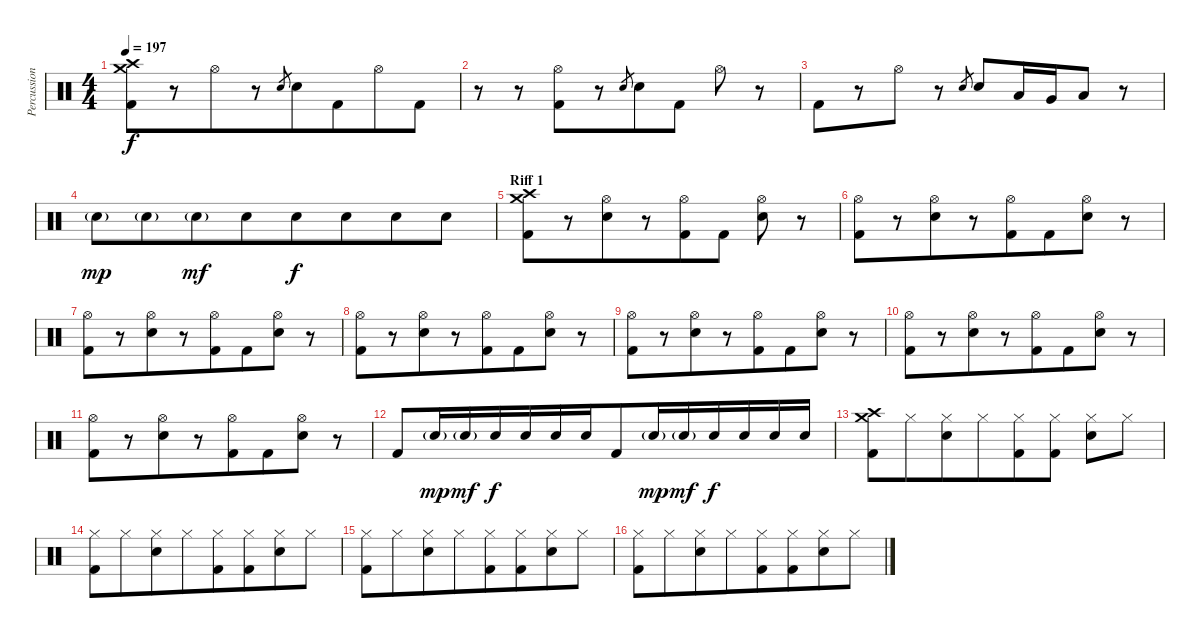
\track ("Percussion" "Percussion") {instrument percussion}
\staff {score}
\articulation defaults
\ts (4 4)
\tempo 197
\clef neutral
\ks c
("Crash medium (hit)" "Crash high (hit)" "Kick (hit) 2").8{dy f beam merge} r.8{beam merge} "Hi-Hat (open)".8{beam merge} r.8 "Electric Snare (hit)".8{gr beam merge} "Electric Snare (hit)".8 "Kick (hit) 2".8{beam merge} "Hi-Hat (open)".8{beam merge} "Kick (hit) 2".8 |
r.8{beam merge} r.8 ("Hi-Hat (open)" "Kick (hit) 2").8{beam merge} r.8 "Electric Snare (hit)".8{gr beam merge} "Electric Snare (hit)".8{beam merge} "Kick (hit) 2".8 "Hi-Hat (open)".8{beam merge} r.8 |
"Kick (hit) 2".8{beam merge} r.8{beam merge} "Hi-Hat (open)".8 r.8 "Electric Snare (hit)".8{gr beam merge} "Electric Snare (hit)".8 "Low Tom (hit)".16{beam merge} "Very Low Tom (hit)".16{beam merge} "Low Floor Tom (hit)".8{beam merge} r.8 |
"Electric Snare (hit)"{g}.8{dy mp beam merge} "Electric Snare (hit)"{g}.8{beam merge} "Electric Snare (hit)"{g}.8{dy mf beam merge} "Electric Snare (hit)".8{beam merge} "Electric Snare (hit)".8{dy f beam merge} "Electric Snare (hit)".8{beam merge} "Electric Snare (hit)".8{beam merge} "Electric Snare (hit)".8 |
\section ("" "Riff 1")
("Crash medium (hit)" "Crash high (hit)" "Kick (hit) 2").8{beam merge} r.8{beam merge} ("Hi-Hat (open)" "Electric Snare (hit)").8{beam merge} r.8{beam merge} ("Hi-Hat (open)" "Kick (hit) 2").8{beam merge} "Kick (hit) 2".8 ("Hi-Hat (open)" "Electric Snare (hit)").8{beam merge} r.8 |
("Hi-Hat (open)" "Kick (hit) 2").8{beam merge} r.8{beam merge} ("Hi-Hat (open)" "Electric Snare (hit)").8{beam merge} r.8{beam merge} ("Hi-Hat (open)" "Kick (hit) 2").8{beam merge} "Kick (hit) 2".8{beam merge} ("Hi-Hat (open)" "Electric Snare (hit)").8 r.8 |
("Hi-Hat (open)" "Kick (hit) 2").8{beam merge} r.8{beam merge} ("Hi-Hat (open)" "Electric Snare (hit)").8{beam merge} r.8{beam merge} ("Hi-Hat (open)" "Kick (hit) 2").8{beam merge} "Kick (hit) 2".8{beam merge} ("Hi-Hat (open)" "Electric Snare (hit)").8{beam merge} r.8 |
("Hi-Hat (open)" "Kick (hit) 2").8{beam merge} r.8 ("Hi-Hat (open)" "Electric Snare (hit)").8{beam merge} r.8{beam merge} ("Hi-Hat (open)" "Kick (hit) 2").8{beam merge} "Kick (hit) 2".8{beam merge} ("Hi-Hat (open)" "Electric Snare (hit)").8{beam merge} r.8 |
("Hi-Hat (open)" "Kick (hit) 2").8{beam merge} r.8{beam merge} ("Hi-Hat (open)" "Electric Snare (hit)").8{beam merge} r.8{beam merge} ("Hi-Hat (open)" "Kick (hit) 2").8{beam merge} "Kick (hit) 2".8{beam merge} ("Hi-Hat (open)" "Electric Snare (hit)").8{beam merge} r.8 |
("Hi-Hat (open)" "Kick (hit) 2").8{beam merge} r.8{beam merge} ("Hi-Hat (open)" "Electric Snare (hit)").8{beam merge} r.8{beam merge} ("Hi-Hat (open)" "Kick (hit) 2").8{beam merge} "Kick (hit) 2".8{beam merge} ("Hi-Hat (open)" "Electric Snare (hit)").8{beam merge} r.8 |
("Hi-Hat (open)" "Kick (hit) 2").8{beam merge} r.8{beam merge} ("Hi-Hat (open)" "Electric Snare (hit)").8{beam merge} r.8{beam merge} ("Hi-Hat (open)" "Kick (hit) 2").8{beam merge} "Kick (hit) 2".8{beam merge} ("Hi-Hat (open)" "Electric Snare (hit)").8{beam merge} r.8 |
"Kick (hit) 2".8{beam merge} "Electric Snare (hit)"{g}.16{dy mp beam merge} "Electric Snare (hit)"{g}.16{dy mf beam merge} "Electric Snare (hit)".16{dy f beam merge} "Electric Snare (hit)".16{beam merge} "Electric Snare (hit)".16{beam merge} "Electric Snare (hit)".16{beam merge} "Kick (hit) 2".8{beam merge} "Electric Snare (hit)"{g}.16{dy mp beam merge} "Electric Snare (hit)"{g}.16{dy mf beam merge} "Electric Snare (hit)".16{dy f beam merge} "Electric Snare (hit)".16{beam merge} "Electric Snare (hit)".16{beam merge} "Electric Snare (hit)".16 |
("Crash medium (hit)" "Crash high (hit)" "Kick (hit) 2").8{beam merge} "Hi-Hat (closed)".8{beam merge} ("Hi-Hat (closed)" "Electric Snare (hit)").8{beam merge} "Hi-Hat (closed)".8{beam merge} ("Hi-Hat (closed)" "Kick (hit) 2").8{beam merge} ("Hi-Hat (closed)" "Kick (hit) 2").8 ("Hi-Hat (closed)" "Electric Snare (hit)").8{beam merge} "Hi-Hat (closed)".8 |
("Hi-Hat (closed)" "Kick (hit) 2").8{beam merge} "Hi-Hat (closed)".8{beam merge} ("Hi-Hat (closed)" "Electric Snare (hit)").8{beam merge} "Hi-Hat (closed)".8{beam merge} ("Hi-Hat (closed)" "Kick (hit) 2").8{beam merge} ("Hi-Hat (closed)" "Kick (hit) 2").8{beam merge} ("Hi-Hat (closed)" "Electric Snare (hit)").8{beam merge} "Hi-Hat (closed)".8 |
("Hi-Hat (closed)" "Kick (hit) 2").8 "Hi-Hat (closed)".8{beam merge} ("Hi-Hat (closed)" "Electric Snare (hit)").8{beam merge} "Hi-Hat (closed)".8{beam merge} ("Hi-Hat (closed)" "Kick (hit) 2").8{beam merge} ("Hi-Hat (closed)" "Kick (hit) 2").8{beam merge} ("Hi-Hat (closed)" "Electric Snare (hit)").8{beam merge} "Hi-Hat (closed)".8 |
("Hi-Hat (closed)" "Kick (hit) 2").8{beam merge} "Hi-Hat (closed)".8{beam merge} ("Hi-Hat (closed)" "Electric Snare (hit)").8{beam merge} "Hi-Hat (closed)".8{beam merge} ("Hi-Hat (closed)" "Kick (hit) 2").8 ("Hi-Hat (closed)" "Kick (hit) 2").8{beam merge} ("Hi-Hat (closed)" "Electric Snare (hit)").8{beam merge} "Hi-Hat (closed)".8
